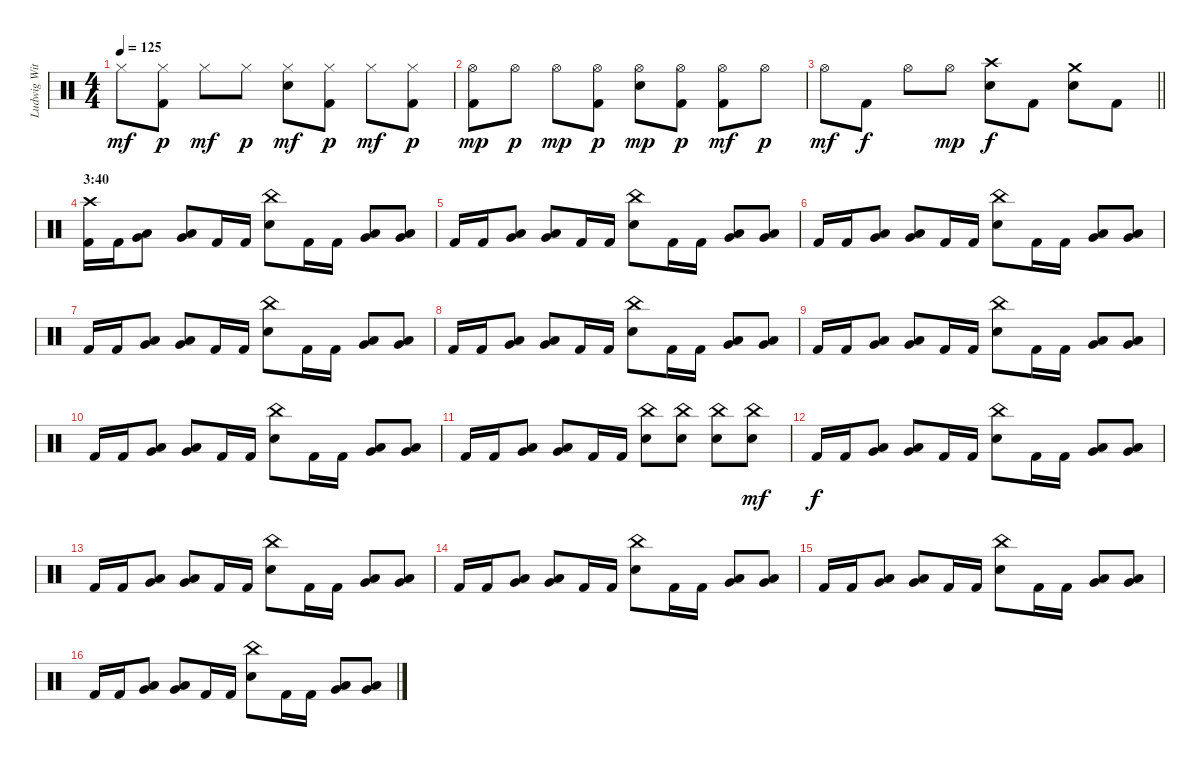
\track ("Ludwig Witt" "Ludwig Wit") {instrument percussion}
\staff {score}
\articulation defaults
\ts (4 4)
\tempo 125
\clef neutral
\ks c "Hi-Hat (closed)".8{dy mf}
("Hi-Hat (closed)" "Kick (hit) 2").8{dy p} "Hi-Hat (closed)".8{dy mf} "Hi-Hat (closed)".8{dy p} ("Hi-Hat (closed)" "Electric Snare (hit)").8{dy mf} ("Hi-Hat (closed)" "Kick (hit) 2").8{dy p} "Hi-Hat (closed)".8{dy mf} ("Hi-Hat (closed)" "Kick (hit) 2").8{dy p} |
("Hi-Hat (open)" "Kick (hit) 2").8{dy mp} "Hi-Hat (open)".8{dy p} "Hi-Hat (open)".8{dy mp} ("Hi-Hat (open)" "Kick (hit) 2").8{dy p} ("Hi-Hat (open)" "Electric Snare (hit)").8{dy mp} ("Hi-Hat (open)" "Kick (hit) 2").8{dy p} ("Hi-Hat (open)" "Kick (hit) 2").8{dy mf} "Hi-Hat (open)".8{dy p} |
\barLineRight lightlight "Hi-Hat (open)".8{dy mf} "Kick (hit) 2".8{dy f} "Hi-Hat (open)".8 "Hi-Hat (open)".8{dy mp}
("Crash high (hit)" "Electric Snare (hit)").8{dy f} "Kick (hit) 2".8 ("Crash medium (hit)" "Electric Snare (hit)").8 "Kick (hit) 2".8 |
\section ("" "3:40")
("Crash high (hit)" "Kick (hit) 2").16{volume 16} "Kick (hit) 2".16 ("Low Tom (hit)" "Very Low Tom (hit)").8 ("Very Low Tom (hit)" "Low Floor Tom (hit)").8 "Kick (hit) 2".16 "Kick (hit) 2".16 ("China (hit)" "Electric Snare (hit)").8 "Kick (hit) 2".16 "Kick (hit) 2".16 ("Low Tom (hit)" "Very Low Tom (hit)").8 ("Very Low Tom (hit)" "Low Floor Tom (hit)").8 |
"Kick (hit) 2".16 "Kick (hit) 2".16 ("Low Tom (hit)" "Very Low Tom (hit)").8 ("Very Low Tom (hit)" "Low Floor Tom (hit)").8 "Kick (hit) 2".16 "Kick (hit) 2".16 ("China (hit)" "Electric Snare (hit)").8 "Kick (hit) 2".16 "Kick (hit) 2".16 ("Low Tom (hit)" "Very Low Tom (hit)").8 ("Very Low Tom (hit)" "Low Floor Tom (hit)").8 |
"Kick (hit) 2".16 "Kick (hit) 2".16 ("Low Tom (hit)" "Very Low Tom (hit)").8 ("Very Low Tom (hit)" "Low Floor Tom (hit)").8 "Kick (hit) 2".16 "Kick (hit) 2".16 ("China (hit)" "Electric Snare (hit)").8 "Kick (hit) 2".16 "Kick (hit) 2".16 ("Low Tom (hit)" "Very Low Tom (hit)").8 ("Very Low Tom (hit)" "Low Floor Tom (hit)").8 |
"Kick (hit) 2".16 "Kick (hit) 2".16 ("Low Tom (hit)" "Very Low Tom (hit)").8 ("Very Low Tom (hit)" "Low Floor Tom (hit)").8 "Kick (hit) 2".16 "Kick (hit) 2".16 ("China (hit)" "Electric Snare (hit)").8 "Kick (hit) 2".16 "Kick (hit) 2".16 ("Low Tom (hit)" "Very Low Tom (hit)").8 ("Very Low Tom (hit)" "Low Floor Tom (hit)").8 |
"Kick (hit) 2".16 "Kick (hit) 2".16 ("Low Tom (hit)" "Very Low Tom (hit)").8 ("Very Low Tom (hit)" "Low Floor Tom (hit)").8 "Kick (hit) 2".16 "Kick (hit) 2".16 ("China (hit)" "Electric Snare (hit)").8 "Kick (hit) 2".16 "Kick (hit) 2".16 ("Low Tom (hit)" "Very Low Tom (hit)").8 ("Very Low Tom (hit)" "Low Floor Tom (hit)").8 |
"Kick (hit) 2".16 "Kick (hit) 2".16 ("Low Tom (hit)" "Very Low Tom (hit)").8 ("Very Low Tom (hit)" "Low Floor Tom (hit)").8 "Kick (hit) 2".16 "Kick (hit) 2".16 ("China (hit)" "Electric Snare (hit)").8 "Kick (hit) 2".16 "Kick (hit) 2".16 ("Low Tom (hit)" "Very Low Tom (hit)").8 ("Very Low Tom (hit)" "Low Floor Tom (hit)").8 |
"Kick (hit) 2".16 "Kick (hit) 2".16 ("Low Tom (hit)" "Very Low Tom (hit)").8 ("Very Low Tom (hit)" "Low Floor Tom (hit)").8 "Kick (hit) 2".16 "Kick (hit) 2".16 ("China (hit)" "Electric Snare (hit)").8 "Kick (hit) 2".16 "Kick (hit) 2".16 ("Low Tom (hit)" "Very Low Tom (hit)").8 ("Very Low Tom (hit)" "Low Floor Tom (hit)").8 |
"Kick (hit) 2".16 "Kick (hit) 2".16 ("Low Tom (hit)" "Very Low Tom (hit)").8 ("Very Low Tom (hit)" "Low Floor Tom (hit)").8 "Kick (hit) 2".16 "Kick (hit) 2".16 ("China (hit)" "Electric Snare (hit)").8 ("China (hit)" "Electric Snare (hit)").8 ("China (hit)" "Electric Snare (hit)").8 ("China (hit)" "Electric Snare (hit)").8{dy mf} |
"Kick (hit) 2".16{dy f} "Kick (hit) 2".16 ("Low Tom (hit)" "Very Low Tom (hit)").8 ("Very Low Tom (hit)" "Low Floor Tom (hit)").8 "Kick (hit) 2".16 "Kick (hit) 2".16 ("China (hit)" "Electric Snare (hit)").8 "Kick (hit) 2".16 "Kick (hit) 2".16 ("Low Tom (hit)" "Very Low Tom (hit)").8 ("Very Low Tom (hit)" "Low Floor Tom (hit)").8 |
"Kick (hit) 2".16 "Kick (hit) 2".16 ("Low Tom (hit)" "Very Low Tom (hit)").8 ("Very Low Tom (hit)" "Low Floor Tom (hit)").8 "Kick (hit) 2".16 "Kick (hit) 2".16 ("China (hit)" "Electric Snare (hit)").8 "Kick (hit) 2".16 "Kick (hit) 2".16 ("Low Tom (hit)" "Very Low Tom (hit)").8 ("Very Low Tom (hit)" "Low Floor Tom (hit)").8 |
"Kick (hit) 2".16 "Kick (hit) 2".16 ("Low Tom (hit)" "Very Low Tom (hit)").8 ("Very Low Tom (hit)" "Low Floor Tom (hit)").8 "Kick (hit) 2".16 "Kick (hit) 2".16 ("China (hit)" "Electric Snare (hit)").8 "Kick (hit) 2".16 "Kick (hit) 2".16 ("Low Tom (hit)" "Very Low Tom (hit)").8 ("Very Low Tom (hit)" "Low Floor Tom (hit)").8 |
"Kick (hit) 2".16 "Kick (hit) 2".16 ("Low Tom (hit)" "Very Low Tom (hit)").8 ("Very Low Tom (hit)" "Low Floor Tom (hit)").8 "Kick (hit) 2".16 "Kick (hit) 2".16 ("China (hit)" "Electric Snare (hit)").8 "Kick (hit) 2".16 "Kick (hit) 2".16 ("Low Tom (hit)" "Very Low Tom (hit)").8 ("Very Low Tom (hit)" "Low Floor Tom (hit)").8 |
"Kick (hit) 2".16 "Kick (hit) 2".16 ("Low Tom (hit)" "Very Low Tom (hit)").8 ("Very Low Tom (hit)" "Low Floor Tom (hit)").8 "Kick (hit) 2".16 "Kick (hit) 2".16 ("China (hit)" "Electric Snare (hit)").8 "Kick (hit) 2".16 "Kick (hit) 2".16 ("Low Tom (hit)" "Very Low Tom (hit)").8 ("Very Low Tom (hit)" "Low Floor Tom (hit)").8
